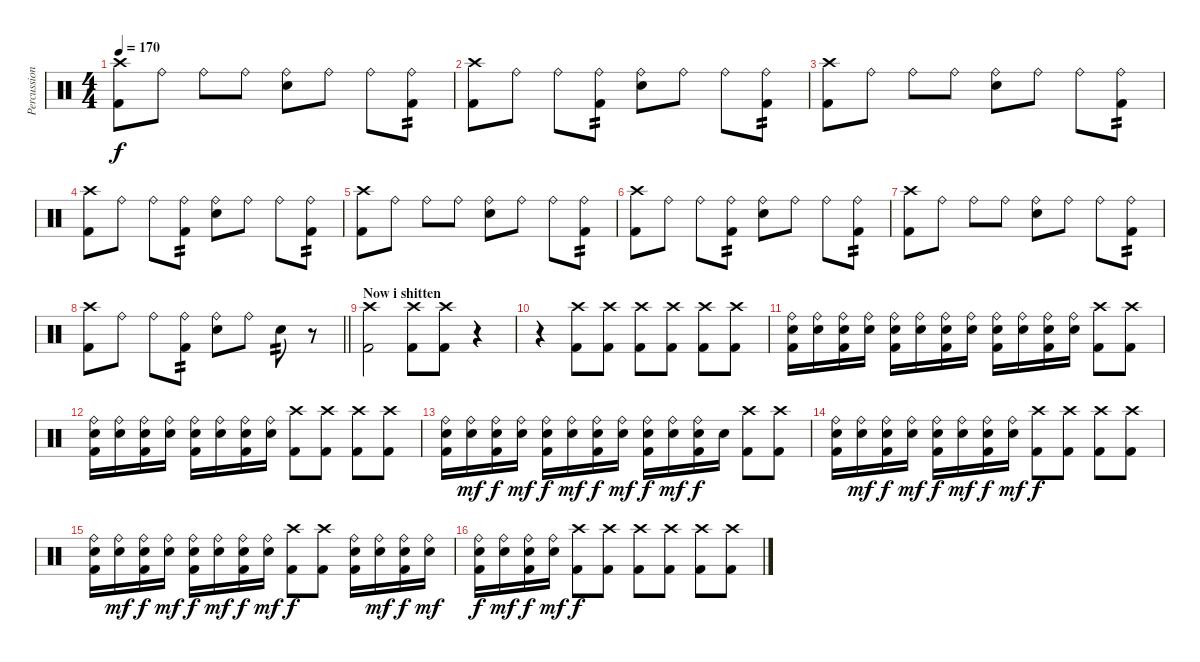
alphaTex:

\track ("Percussion" "Percussion") {instrument percussion}
\staff {score}
\articulation defaults
\ts (4 4)
\tempo 170
\clef neutral
\ks c
("Crash high (hit)" "Kick (hit) 2").8{dy f} "Ride (bell)".8 "Ride (bell)".8 "Ride (bell)".8 ("Ride (bell)" "Electric Snare (hit)").8 "Ride (bell)".8 "Ride (bell)".8 ("Ride (bell)" "Kick (hit) 2").8{tp 2} |
("Crash high (hit)" "Kick (hit) 2").8 "Ride (bell)".8 "Ride (bell)".8 ("Ride (bell)" "Kick (hit) 2").8{tp 2} ("Ride (bell)" "Electric Snare (hit)").8 "Ride (bell)".8 "Ride (bell)".8 ("Ride (bell)" "Kick (hit) 2").8{tp 2} |
("Crash high (hit)" "Kick (hit) 2").8 "Ride (bell)".8 "Ride (bell)".8 "Ride (bell)".8 ("Ride (bell)" "Electric Snare (hit)").8 "Ride (bell)".8 "Ride (bell)".8 ("Ride (bell)" "Kick (hit) 2").8{tp 2} |
("Crash high (hit)" "Kick (hit) 2").8 "Ride (bell)".8 "Ride (bell)".8 ("Ride (bell)" "Kick (hit) 2").8{tp 2} ("Ride (bell)" "Electric Snare (hit)").8 "Ride (bell)".8 "Ride (bell)".8 ("Ride (bell)" "Kick (hit) 2").8{tp 2} |
("Crash high (hit)" "Kick (hit) 2").8 "Ride (bell)".8 "Ride (bell)".8 "Ride (bell)".8 ("Ride (bell)" "Electric Snare (hit)").8 "Ride (bell)".8 "Ride (bell)".8 ("Ride (bell)" "Kick (hit) 2").8{tp 2} |
("Crash high (hit)" "Kick (hit) 2").8 "Ride (bell)".8 "Ride (bell)".8 ("Ride (bell)" "Kick (hit) 2").8{tp 2} ("Ride (bell)" "Electric Snare (hit)").8 "Ride (bell)".8 "Ride (bell)".8 ("Ride (bell)" "Kick (hit) 2").8{tp 2} |
("Crash high (hit)" "Kick (hit) 2").8 "Ride (bell)".8 "Ride (bell)".8 "Ride (bell)".8 ("Ride (bell)" "Electric Snare (hit)").8 "Ride (bell)".8 "Ride (bell)".8 ("Ride (bell)" "Kick (hit) 2").8{tp 2} |
\barLineRight lightlight
("Crash high (hit)" "Kick (hit) 2").8 "Ride (bell)".8 "Ride (bell)".8 ("Ride (bell)" "Kick (hit) 2").8{tp 2} ("Ride (bell)" "Electric Snare (hit)").8 "Ride (bell)".8 "Electric Snare (hit)".8{tp 2} r.8 |
\section ("" "Now i shitten")
("Crash high (hit)" "Kick (hit) 2").2 ("Crash high (hit)" "Kick (hit) 2").8 ("Crash high (hit)" "Kick (hit) 2").8 r.4 |
r.4 ("Crash high (hit)" "Kick (hit) 2").8 ("Crash high (hit)" "Kick (hit) 2").8 ("Crash high (hit)" "Kick (hit) 2").8 ("Crash high (hit)" "Kick (hit) 2").8 ("Crash high (hit)" "Kick (hit) 2").8 ("Crash high (hit)" "Kick (hit) 2").8 |
("Ride (bell)" "Electric Snare (hit)" "Kick (hit) 2").16 ("Ride (bell)" "Electric Snare (hit)").16 ("Ride (bell)" "Electric Snare (hit)" "Kick (hit) 2").16 ("Ride (bell)" "Electric Snare (hit)").16 ("Ride (bell)" "Electric Snare (hit)" "Kick (hit) 2").16 ("Ride (bell)" "Electric Snare (hit)").16 ("Ride (bell)" "Electric Snare (hit)" "Kick (hit) 2").16 ("Ride (bell)" "Electric Snare (hit)").16 ("Ride (bell)" "Electric Snare (hit)" "Kick (hit) 2").16 ("Ride (bell)" "Electric Snare (hit)").16 ("Ride (bell)" "Electric Snare (hit)" "Kick (hit) 2").16 ("Ride (bell)" "Electric Snare (hit)").16 ("Crash high (hit)" "Kick (hit) 2").8 ("Crash high (hit)" "Kick (hit) 2").8 |
("Ride (bell)" "Electric Snare (hit)" "Kick (hit) 2").16 ("Ride (bell)" "Electric Snare (hit)").16 ("Ride (bell)" "Electric Snare (hit)" "Kick (hit) 2").16 ("Ride (bell)" "Electric Snare (hit)").16 ("Ride (bell)" "Electric Snare (hit)" "Kick (hit) 2").16 ("Ride (bell)" "Electric Snare (hit)").16 ("Ride (bell)" "Electric Snare (hit)" "Kick (hit) 2").16 ("Ride (bell)" "Electric Snare (hit)").16 ("Crash high (hit)" "Kick (hit) 2").8 ("Crash high (hit)" "Kick (hit) 2").8 ("Crash high (hit)" "Kick (hit) 2").8 ("Crash high (hit)" "Kick (hit) 2").8 |
("Ride (bell)" "Electric Snare (hit)" "Kick (hit) 2").16 ("Ride (bell)" "Electric Snare (hit)").16{dy mf} ("Ride (bell)" "Electric Snare (hit)" "Kick (hit) 2").16{dy f} ("Ride (bell)" "Electric Snare (hit)").16{dy mf} ("Ride (bell)" "Electric Snare (hit)" "Kick (hit) 2").16{dy f} ("Ride (bell)" "Electric Snare (hit)").16{dy mf} ("Ride (bell)" "Electric Snare (hit)" "Kick (hit) 2").16{dy f} ("Ride (bell)" "Electric Snare (hit)").16{dy mf} ("Ride (bell)" "Electric Snare (hit)" "Kick (hit) 2").16{dy f} ("Ride (bell)" "Electric Snare (hit)").16{dy mf} ("Ride (bell)" "Electric Snare (hit)" "Kick (hit) 2").16{dy f} "Electric Snare (hit)".16 ("Crash high (hit)" "Kick (hit) 2").8 ("Crash high (hit)" "Kick (hit) 2").8 |
("Ride (bell)" "Electric Snare (hit)" "Kick (hit) 2").16 ("Ride (bell)" "Electric Snare (hit)").16{dy mf} ("Ride (bell)" "Electric Snare (hit)" "Kick (hit) 2").16{dy f} ("Ride (bell)" "Electric Snare (hit)").16{dy mf} ("Ride (bell)" "Electric Snare (hit)" "Kick (hit) 2").16{dy f} ("Ride (bell)" "Electric Snare (hit)").16{dy mf} ("Ride (bell)" "Electric Snare (hit)" "Kick (hit) 2").16{dy f} ("Ride (bell)" "Electric Snare (hit)").16{dy mf} ("Crash high (hit)" "Kick (hit) 2").8{dy f} ("Crash high (hit)" "Kick (hit) 2").8 ("Crash high (hit)" "Kick (hit) 2").8 ("Crash high (hit)" "Kick (hit) 2").8 |
("Ride (bell)" "Electric Snare (hit)" "Kick (hit) 2").16 ("Ride (bell)" "Electric Snare (hit)").16{dy mf} ("Ride (bell)" "Electric Snare (hit)" "Kick (hit) 2").16{dy f} ("Ride (bell)" "Electric Snare (hit)").16{dy mf} ("Ride (bell)" "Electric Snare (hit)" "Kick (hit) 2").16{dy f} ("Ride (bell)" "Electric Snare (hit)").16{dy mf} ("Ride (bell)" "Electric Snare (hit)" "Kick (hit) 2").16{dy f} ("Ride (bell)" "Electric Snare (hit)").16{dy mf} ("Crash high (hit)" "Kick (hit) 2").8{dy f} ("Crash high (hit)" "Kick (hit) 2").8 ("Ride (bell)" "Electric Snare (hit)" "Kick (hit) 2").16 ("Ride (bell)" "Electric Snare (hit)").16{dy mf} ("Ride (bell)" "Electric Snare (hit)" "Kick (hit) 2").16{dy f} ("Ride (bell)" "Electric Snare (hit)").16{dy mf} |
("Ride (bell)" "Electric Snare (hit)" "Kick (hit) 2").16{dy f} ("Ride (bell)" "Electric Snare (hit)").16{dy mf} ("Ride (bell)" "Electric Snare (hit)" "Kick (hit) 2").16{dy f} ("Ride (bell)" "Electric Snare (hit)").16{dy mf} ("Crash high (hit)" "Kick (hit) 2").8{dy f} ("Crash high (hit)" "Kick (hit) 2").8 ("Crash high (hit)" "Kick (hit) 2").8 ("Crash high (hit)" "Kick (hit) 2").8 ("Crash high (hit)" "Kick (hit) 2").8 ("Crash high (hit)" "Kick (hit) 2").8
